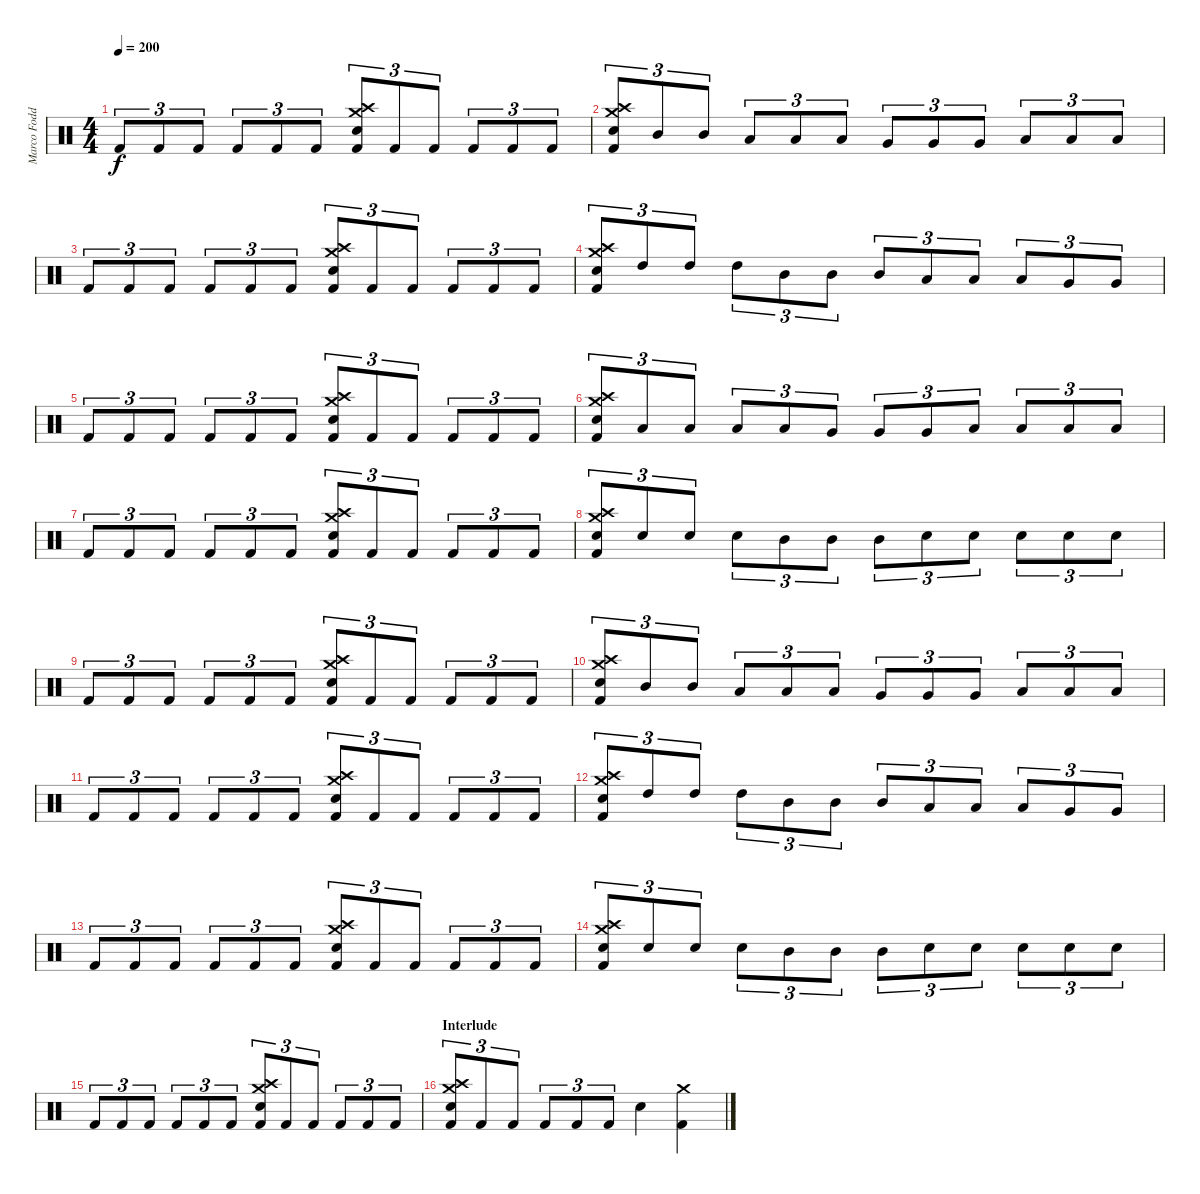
\track ("Marco Foddis " "Marco Fodd") {instrument percussion}
\staff {score}
\articulation defaults
\ts (4 4)
\tempo 200
\clef neutral
\ks c "Kick (hit) 2".8{tu (3 2) dy f} "Kick (hit) 2".8{tu (3 2)} "Kick (hit) 2".8{tu (3 2)} "Kick (hit) 2".8{tu (3 2)} "Kick (hit) 2".8{tu (3 2)} "Kick (hit) 2".8{tu (3 2)}
("Crash high (hit)" "Crash medium (hit)" "Electric Snare (hit)" "Kick (hit) 2").8{tu (3 2)} "Kick (hit) 2".8{tu (3 2)} "Kick (hit) 2".8{tu (3 2)} "Kick (hit) 2".8{tu (3 2)} "Kick (hit) 2".8{tu (3 2)} "Kick (hit) 2".8{tu (3 2)} |
("Crash high (hit)" "Crash medium (hit)" "Electric Snare (hit)" "Kick (hit) 2").8{tu (3 2)} "Mid Tom (hit)".8{tu (3 2)} "Mid Tom (hit)".8{tu (3 2)} "Low Tom (hit)".8{tu (3 2)} "Low Tom (hit)".8{tu (3 2)} "Low Tom (hit)".8{tu (3 2)} "Very Low Tom (hit)".8{tu (3 2)} "Very Low Tom (hit)".8{tu (3 2)} "Very Low Tom (hit)".8{tu (3 2)} "Low Floor Tom (hit)".8{tu (3 2)} "Low Floor Tom (hit)".8{tu (3 2)} "Low Floor Tom (hit)".8{tu (3 2)} |
"Kick (hit) 2".8{tu (3 2)} "Kick (hit) 2".8{tu (3 2)} "Kick (hit) 2".8{tu (3 2)} "Kick (hit) 2".8{tu (3 2)} "Kick (hit) 2".8{tu (3 2)} "Kick (hit) 2".8{tu (3 2)} ("Crash high (hit)" "Crash medium (hit)" "Electric Snare (hit)" "Kick (hit) 2").8{tu (3 2)} "Kick (hit) 2".8{tu (3 2)} "Kick (hit) 2".8{tu (3 2)} "Kick (hit) 2".8{tu (3 2)} "Kick (hit) 2".8{tu (3 2)} "Kick (hit) 2".8{tu (3 2)} |
("Crash high (hit)" "Crash medium (hit)" "Electric Snare (hit)" "Kick (hit) 2").8{tu (3 2)} "High Tom (hit)".8{tu (3 2)} "High Tom (hit)".8{tu (3 2)} "High Tom (hit)".8{tu (3 2)} "Mid Tom (hit)".8{tu (3 2)} "Mid Tom (hit)".8{tu (3 2)} "Mid Tom (hit)".8{tu (3 2)} "Low Tom (hit)".8{tu (3 2)} "Low Tom (hit)".8{tu (3 2)} "Low Tom (hit)".8{tu (3 2)} "Very Low Tom (hit)".8{tu (3 2)} "Very Low Tom (hit)".8{tu (3 2)} |
"Kick (hit) 2".8{tu (3 2)} "Kick (hit) 2".8{tu (3 2)} "Kick (hit) 2".8{tu (3 2)} "Kick (hit) 2".8{tu (3 2)} "Kick (hit) 2".8{tu (3 2)} "Kick (hit) 2".8{tu (3 2)} ("Crash high (hit)" "Crash medium (hit)" "Electric Snare (hit)" "Kick (hit) 2").8{tu (3 2)} "Kick (hit) 2".8{tu (3 2)} "Kick (hit) 2".8{tu (3 2)} "Kick (hit) 2".8{tu (3 2)} "Kick (hit) 2".8{tu (3 2)} "Kick (hit) 2".8{tu (3 2)} |
("Crash high (hit)" "Crash medium (hit)" "Electric Snare (hit)" "Kick (hit) 2").8{tu (3 2)} "Low Tom (hit)".8{tu (3 2)} "Low Tom (hit)".8{tu (3 2)} "Low Tom (hit)".8{tu (3 2)} "Low Tom (hit)".8{tu (3 2)} "Very Low Tom (hit)".8{tu (3 2)} "Very Low Tom (hit)".8{tu (3 2)} "Very Low Tom (hit)".8{tu (3 2)} "Low Floor Tom (hit)".8{tu (3 2)} "Low Floor Tom (hit)".8{tu (3 2)} "Low Floor Tom (hit)".8{tu (3 2)} "Low Floor Tom (hit)".8{tu (3 2)} |
"Kick (hit) 2".8{tu (3 2)} "Kick (hit) 2".8{tu (3 2)} "Kick (hit) 2".8{tu (3 2)} "Kick (hit) 2".8{tu (3 2)} "Kick (hit) 2".8{tu (3 2)} "Kick (hit) 2".8{tu (3 2)} ("Crash high (hit)" "Crash medium (hit)" "Electric Snare (hit)" "Kick (hit) 2").8{tu (3 2)} "Kick (hit) 2".8{tu (3 2)} "Kick (hit) 2".8{tu (3 2)} "Kick (hit) 2".8{tu (3 2)} "Kick (hit) 2".8{tu (3 2)} "Kick (hit) 2".8{tu (3 2)} |
("Crash high (hit)" "Crash medium (hit)" "Electric Snare (hit)" "Kick (hit) 2").8{tu (3 2)} "Electric Snare (hit)".8{tu (3 2)} "Electric Snare (hit)".8{tu (3 2)} "Electric Snare (hit)".8{tu (3 2)} "Mid Tom (hit)".8{tu (3 2)} "Mid Tom (hit)".8{tu (3 2)} "Mid Tom (hit)".8{tu (3 2)} "Electric Snare (hit)".8{tu (3 2)} "Electric Snare (hit)".8{tu (3 2)} "Electric Snare (hit)".8{tu (3 2)} "Electric Snare (hit)".8{tu (3 2)} "Electric Snare (hit)".8{tu (3 2)} |
"Kick (hit) 2".8{tu (3 2)} "Kick (hit) 2".8{tu (3 2)} "Kick (hit) 2".8{tu (3 2)} "Kick (hit) 2".8{tu (3 2)} "Kick (hit) 2".8{tu (3 2)} "Kick (hit) 2".8{tu (3 2)} ("Crash high (hit)" "Crash medium (hit)" "Electric Snare (hit)" "Kick (hit) 2").8{tu (3 2)} "Kick (hit) 2".8{tu (3 2)} "Kick (hit) 2".8{tu (3 2)} "Kick (hit) 2".8{tu (3 2)} "Kick (hit) 2".8{tu (3 2)} "Kick (hit) 2".8{tu (3 2)} |
("Crash high (hit)" "Crash medium (hit)" "Electric Snare (hit)" "Kick (hit) 2").8{tu (3 2)} "Mid Tom (hit)".8{tu (3 2)} "Mid Tom (hit)".8{tu (3 2)} "Low Tom (hit)".8{tu (3 2)} "Low Tom (hit)".8{tu (3 2)} "Low Tom (hit)".8{tu (3 2)} "Very Low Tom (hit)".8{tu (3 2)} "Very Low Tom (hit)".8{tu (3 2)} "Very Low Tom (hit)".8{tu (3 2)} "Low Floor Tom (hit)".8{tu (3 2)} "Low Floor Tom (hit)".8{tu (3 2)} "Low Floor Tom (hit)".8{tu (3 2)} |
"Kick (hit) 2".8{tu (3 2)} "Kick (hit) 2".8{tu (3 2)} "Kick (hit) 2".8{tu (3 2)} "Kick (hit) 2".8{tu (3 2)} "Kick (hit) 2".8{tu (3 2)} "Kick (hit) 2".8{tu (3 2)} ("Crash high (hit)" "Crash medium (hit)" "Electric Snare (hit)" "Kick (hit) 2").8{tu (3 2)} "Kick (hit) 2".8{tu (3 2)} "Kick (hit) 2".8{tu (3 2)} "Kick (hit) 2".8{tu (3 2)} "Kick (hit) 2".8{tu (3 2)} "Kick (hit) 2".8{tu (3 2)} |
("Crash high (hit)" "Crash medium (hit)" "Electric Snare (hit)" "Kick (hit) 2").8{tu (3 2)} "High Tom (hit)".8{tu (3 2)} "High Tom (hit)".8{tu (3 2)} "High Tom (hit)".8{tu (3 2)} "Mid Tom (hit)".8{tu (3 2)} "Mid Tom (hit)".8{tu (3 2)} "Mid Tom (hit)".8{tu (3 2)} "Low Tom (hit)".8{tu (3 2)} "Low Tom (hit)".8{tu (3 2)} "Low Tom (hit)".8{tu (3 2)} "Very Low Tom (hit)".8{tu (3 2)} "Very Low Tom (hit)".8{tu (3 2)} |
"Kick (hit) 2".8{tu (3 2)} "Kick (hit) 2".8{tu (3 2)} "Kick (hit) 2".8{tu (3 2)} "Kick (hit) 2".8{tu (3 2)} "Kick (hit) 2".8{tu (3 2)} "Kick (hit) 2".8{tu (3 2)} ("Crash high (hit)" "Crash medium (hit)" "Electric Snare (hit)" "Kick (hit) 2").8{tu (3 2)} "Kick (hit) 2".8{tu (3 2)} "Kick (hit) 2".8{tu (3 2)} "Kick (hit) 2".8{tu (3 2)} "Kick (hit) 2".8{tu (3 2)} "Kick (hit) 2".8{tu (3 2)} |
("Crash high (hit)" "Crash medium (hit)" "Electric Snare (hit)" "Kick (hit) 2").8{tu (3 2)} "Electric Snare (hit)".8{tu (3 2)} "Electric Snare (hit)".8{tu (3 2)} "Electric Snare (hit)".8{tu (3 2)} "Mid Tom (hit)".8{tu (3 2)} "Mid Tom (hit)".8{tu (3 2)} "Mid Tom (hit)".8{tu (3 2)} "Electric Snare (hit)".8{tu (3 2)} "Electric Snare (hit)".8{tu (3 2)} "Electric Snare (hit)".8{tu (3 2)} "Electric Snare (hit)".8{tu (3 2)} "Electric Snare (hit)".8{tu (3 2)} |
"Kick (hit) 2".8{tu (3 2)} "Kick (hit) 2".8{tu (3 2)} "Kick (hit) 2".8{tu (3 2)} "Kick (hit) 2".8{tu (3 2)} "Kick (hit) 2".8{tu (3 2)} "Kick (hit) 2".8{tu (3 2)} ("Crash high (hit)" "Crash medium (hit)" "Electric Snare (hit)" "Kick (hit) 2").8{tu (3 2)} "Kick (hit) 2".8{tu (3 2)} "Kick (hit) 2".8{tu (3 2)} "Kick (hit) 2".8{tu (3 2)} "Kick (hit) 2".8{tu (3 2)} "Kick (hit) 2".8{tu (3 2)} |
\section ("" "Interlude")
("Crash high (hit)" "Crash medium (hit)" "Electric Snare (hit)" "Kick (hit) 2").8{tu (3 2)} "Kick (hit) 2".8{tu (3 2)} "Kick (hit) 2".8{tu (3 2)} "Kick (hit) 2".8{tu (3 2)} "Kick (hit) 2".8{tu (3 2)} "Kick (hit) 2".8{tu (3 2)} "Electric Snare (hit)".4 ("Crash medium (hit)" "Kick (hit) 2").4
